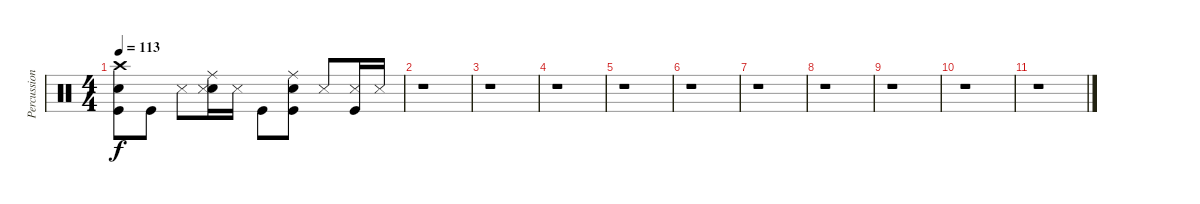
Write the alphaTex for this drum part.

\track ("Percussion" "Percussion") {instrument percussion}
\staff {score}
\articulation defaults
\ts (4 4)
\tempo 113
\clef neutral
\ks c
("Crash high (hit)" "Electric Snare (hit)" "Kick (hit)").8{dy f} "Kick (hit)".8 "Snare (side stick) 3".8 ("Ride (middle)" "Electric Snare (hit)" "Snare (side stick) 3").16 "Snare (side stick) 3".16 "Kick (hit)".8 ("Ride (middle)" "Electric Snare (hit)" "Kick (hit)").8 "Snare (side stick) 3".8 ("Snare (side stick) 3" "Kick (hit)").16 "Snare (side stick) 3".16 |
r.1 |
r.1 |
r.1 |
r.1 |
r.1 |
r.1 |
r.1 |
r.1 |
r.1 |
r.1
